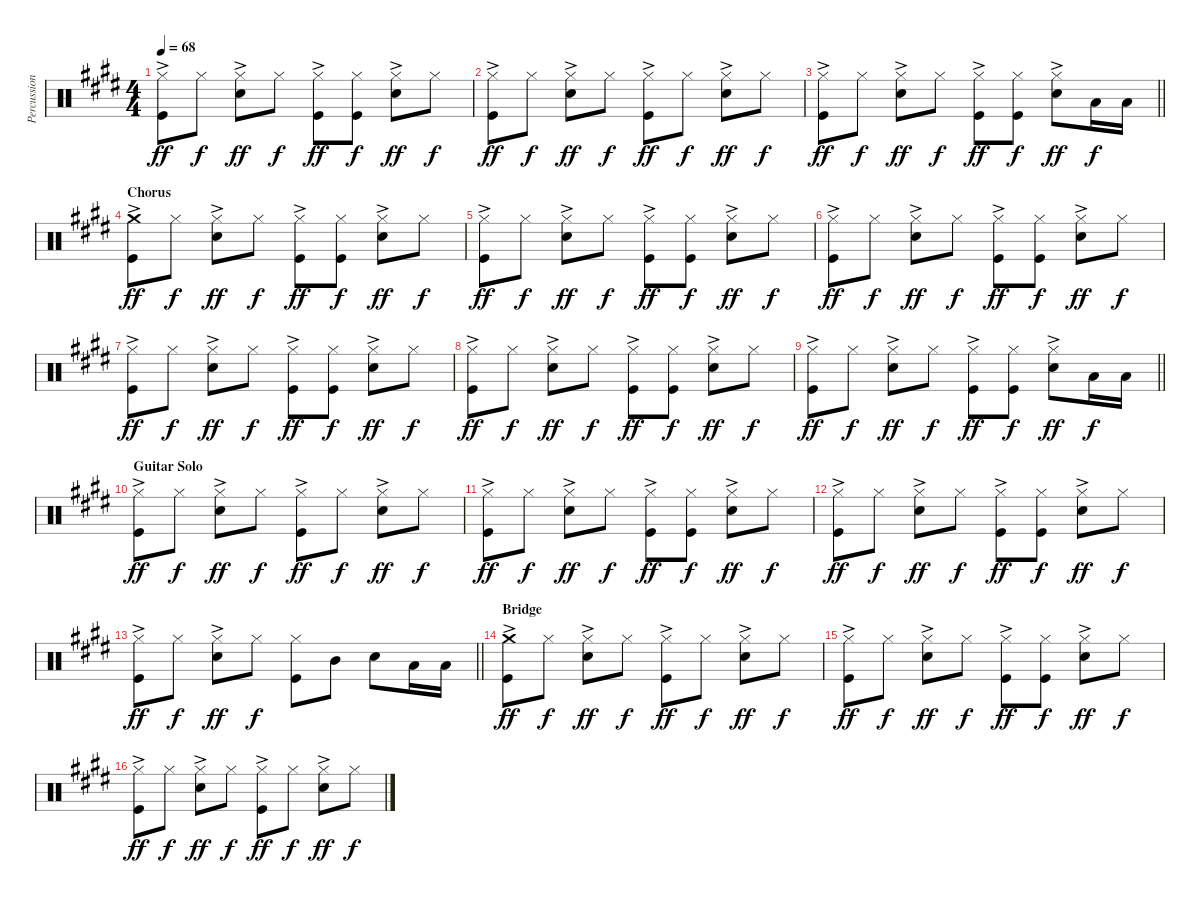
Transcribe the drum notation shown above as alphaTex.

\track ("Percussion" "Percussion") {instrument percussion}
\staff {score}
\articulation defaults
\ts (4 4)
\tempo 68
\clef neutral
\ks e
("Hi-Hat (closed)"{ac} "Kick (hit)").8{dy ff} "Hi-Hat (closed)".8{dy f} ("Hi-Hat (closed)"{ac} "Snare (hit) 2").8{dy ff} "Hi-Hat (closed)".8{dy f} ("Hi-Hat (closed)"{ac} "Kick (hit)").8{dy ff} ("Hi-Hat (closed)" "Kick (hit)").8{dy f} ("Hi-Hat (closed)"{ac} "Snare (hit) 2").8{dy ff} "Hi-Hat (closed)".8{dy f} |
("Hi-Hat (closed)"{ac} "Kick (hit)").8{dy ff} "Hi-Hat (closed)".8{dy f} ("Hi-Hat (closed)"{ac} "Snare (hit) 2").8{dy ff} "Hi-Hat (closed)".8{dy f} ("Hi-Hat (closed)"{ac} "Kick (hit)").8{dy ff} "Hi-Hat (closed)".8{dy f} ("Hi-Hat (closed)"{ac} "Snare (hit) 2").8{dy ff} "Hi-Hat (closed)".8{dy f} |
\barLineRight lightlight
("Hi-Hat (closed)"{ac} "Kick (hit)").8{dy ff} "Hi-Hat (closed)".8{dy f} ("Hi-Hat (closed)"{ac} "Snare (hit) 2").8{dy ff} "Hi-Hat (closed)".8{dy f} ("Hi-Hat (closed)"{ac} "Kick (hit)").8{dy ff} ("Hi-Hat (closed)" "Kick (hit)").8{dy f} ("Hi-Hat (closed)"{ac} "Snare (hit) 2").8{dy ff} "Low Floor Tom (hit)".16{dy f} "Low Floor Tom (hit)".16 |
\section ("" "Chorus")
("Crash medium (hit)"{ac} "Kick (hit)").8{dy ff} "Hi-Hat (closed)".8{dy f} ("Hi-Hat (closed)"{ac} "Snare (hit) 2").8{dy ff} "Hi-Hat (closed)".8{dy f} ("Hi-Hat (closed)"{ac} "Kick (hit)").8{dy ff} ("Hi-Hat (closed)" "Kick (hit)").8{dy f} ("Hi-Hat (closed)"{ac} "Snare (hit) 2").8{dy ff} "Hi-Hat (closed)".8{dy f} |
("Hi-Hat (closed)"{ac} "Kick (hit)").8{dy ff} "Hi-Hat (closed)".8{dy f} ("Hi-Hat (closed)"{ac} "Snare (hit) 2").8{dy ff} "Hi-Hat (closed)".8{dy f} ("Hi-Hat (closed)"{ac} "Kick (hit)").8{dy ff} ("Hi-Hat (closed)" "Kick (hit)").8{dy f} ("Hi-Hat (closed)"{ac} "Snare (hit) 2").8{dy ff} "Hi-Hat (closed)".8{dy f} |
("Hi-Hat (closed)"{ac} "Kick (hit)").8{dy ff} "Hi-Hat (closed)".8{dy f} ("Hi-Hat (closed)"{ac} "Snare (hit) 2").8{dy ff} "Hi-Hat (closed)".8{dy f} ("Hi-Hat (closed)"{ac} "Kick (hit)").8{dy ff} ("Hi-Hat (closed)" "Kick (hit)").8{dy f} ("Hi-Hat (closed)"{ac} "Snare (hit) 2").8{dy ff} "Hi-Hat (closed)".8{dy f} |
("Hi-Hat (closed)"{ac} "Kick (hit)").8{dy ff} "Hi-Hat (closed)".8{dy f} ("Hi-Hat (closed)"{ac} "Snare (hit) 2").8{dy ff} "Hi-Hat (closed)".8{dy f} ("Hi-Hat (closed)"{ac} "Kick (hit)").8{dy ff} ("Hi-Hat (closed)" "Kick (hit)").8{dy f} ("Hi-Hat (closed)"{ac} "Snare (hit) 2").8{dy ff} "Hi-Hat (closed)".8{dy f} |
("Hi-Hat (closed)"{ac} "Kick (hit)").8{dy ff} "Hi-Hat (closed)".8{dy f} ("Hi-Hat (closed)"{ac} "Snare (hit) 2").8{dy ff} "Hi-Hat (closed)".8{dy f} ("Hi-Hat (closed)"{ac} "Kick (hit)").8{dy ff} ("Hi-Hat (closed)" "Kick (hit)").8{dy f} ("Hi-Hat (closed)"{ac} "Snare (hit) 2").8{dy ff} "Hi-Hat (closed)".8{dy f} |
\barLineRight lightlight
("Hi-Hat (closed)"{ac} "Kick (hit)").8{dy ff} "Hi-Hat (closed)".8{dy f} ("Hi-Hat (closed)"{ac} "Snare (hit) 2").8{dy ff} "Hi-Hat (closed)".8{dy f} ("Hi-Hat (closed)"{ac} "Kick (hit)").8{dy ff} ("Hi-Hat (closed)" "Kick (hit)").8{dy f} ("Hi-Hat (closed)"{ac} "Snare (hit) 2").8{dy ff} "Low Floor Tom (hit)".16{dy f} "Low Floor Tom (hit)".16 |
\section ("" "Guitar Solo")
("Hi-Hat (closed)"{ac} "Kick (hit)").8{dy ff} "Hi-Hat (closed)".8{dy f} ("Hi-Hat (closed)"{ac} "Snare (hit) 2").8{dy ff} "Hi-Hat (closed)".8{dy f} ("Hi-Hat (closed)"{ac} "Kick (hit)").8{dy ff} "Hi-Hat (closed)".8{dy f} ("Hi-Hat (closed)"{ac} "Snare (hit) 2").8{dy ff} "Hi-Hat (closed)".8{dy f} |
("Hi-Hat (closed)"{ac} "Kick (hit)").8{dy ff} "Hi-Hat (closed)".8{dy f} ("Hi-Hat (closed)"{ac} "Snare (hit) 2").8{dy ff} "Hi-Hat (closed)".8{dy f} ("Hi-Hat (closed)"{ac} "Kick (hit)").8{dy ff} ("Hi-Hat (closed)" "Kick (hit)").8{dy f} ("Hi-Hat (closed)"{ac} "Snare (hit) 2").8{dy ff} "Hi-Hat (closed)".8{dy f} |
("Hi-Hat (closed)"{ac} "Kick (hit)").8{dy ff} "Hi-Hat (closed)".8{dy f} ("Hi-Hat (closed)"{ac} "Snare (hit) 2").8{dy ff} "Hi-Hat (closed)".8{dy f} ("Hi-Hat (closed)"{ac} "Kick (hit)").8{dy ff} ("Hi-Hat (closed)" "Kick (hit)").8{dy f} ("Hi-Hat (closed)"{ac} "Snare (hit) 2").8{dy ff} "Hi-Hat (closed)".8{dy f} |
\barLineRight lightlight
("Hi-Hat (closed)"{ac} "Kick (hit)").8{dy ff} "Hi-Hat (closed)".8{dy f} ("Hi-Hat (closed)"{ac} "Snare (hit) 2").8{dy ff} "Hi-Hat (closed)".8{dy f} ("Hi-Hat (closed)" "Kick (hit)").8 "Mid Tom (hit)".8 "Snare (hit) 2".8 "Low Floor Tom (hit)".16 "Low Floor Tom (hit)".16 |
\section ("" "Bridge")
("Crash medium (hit)"{ac} "Kick (hit)").8{dy ff} "Hi-Hat (closed)".8{dy f} ("Hi-Hat (closed)"{ac} "Snare (hit) 2").8{dy ff} "Hi-Hat (closed)".8{dy f} ("Hi-Hat (closed)"{ac} "Kick (hit)").8{dy ff} "Hi-Hat (closed)".8{dy f} ("Hi-Hat (closed)"{ac} "Snare (hit) 2").8{dy ff} "Hi-Hat (closed)".8{dy f} |
("Hi-Hat (closed)"{ac} "Kick (hit)").8{dy ff} "Hi-Hat (closed)".8{dy f} ("Hi-Hat (closed)"{ac} "Snare (hit) 2").8{dy ff} "Hi-Hat (closed)".8{dy f} ("Hi-Hat (closed)"{ac} "Kick (hit)").8{dy ff} ("Hi-Hat (closed)" "Kick (hit)").8{dy f} ("Hi-Hat (closed)"{ac} "Snare (hit) 2").8{dy ff} "Hi-Hat (closed)".8{dy f} |
("Hi-Hat (closed)"{ac} "Kick (hit)").8{dy ff} "Hi-Hat (closed)".8{dy f} ("Hi-Hat (closed)"{ac} "Snare (hit) 2").8{dy ff} "Hi-Hat (closed)".8{dy f} ("Hi-Hat (closed)"{ac} "Kick (hit)").8{dy ff} "Hi-Hat (closed)".8{dy f} ("Hi-Hat (closed)"{ac} "Snare (hit) 2").8{dy ff} "Hi-Hat (closed)".8{dy f}
